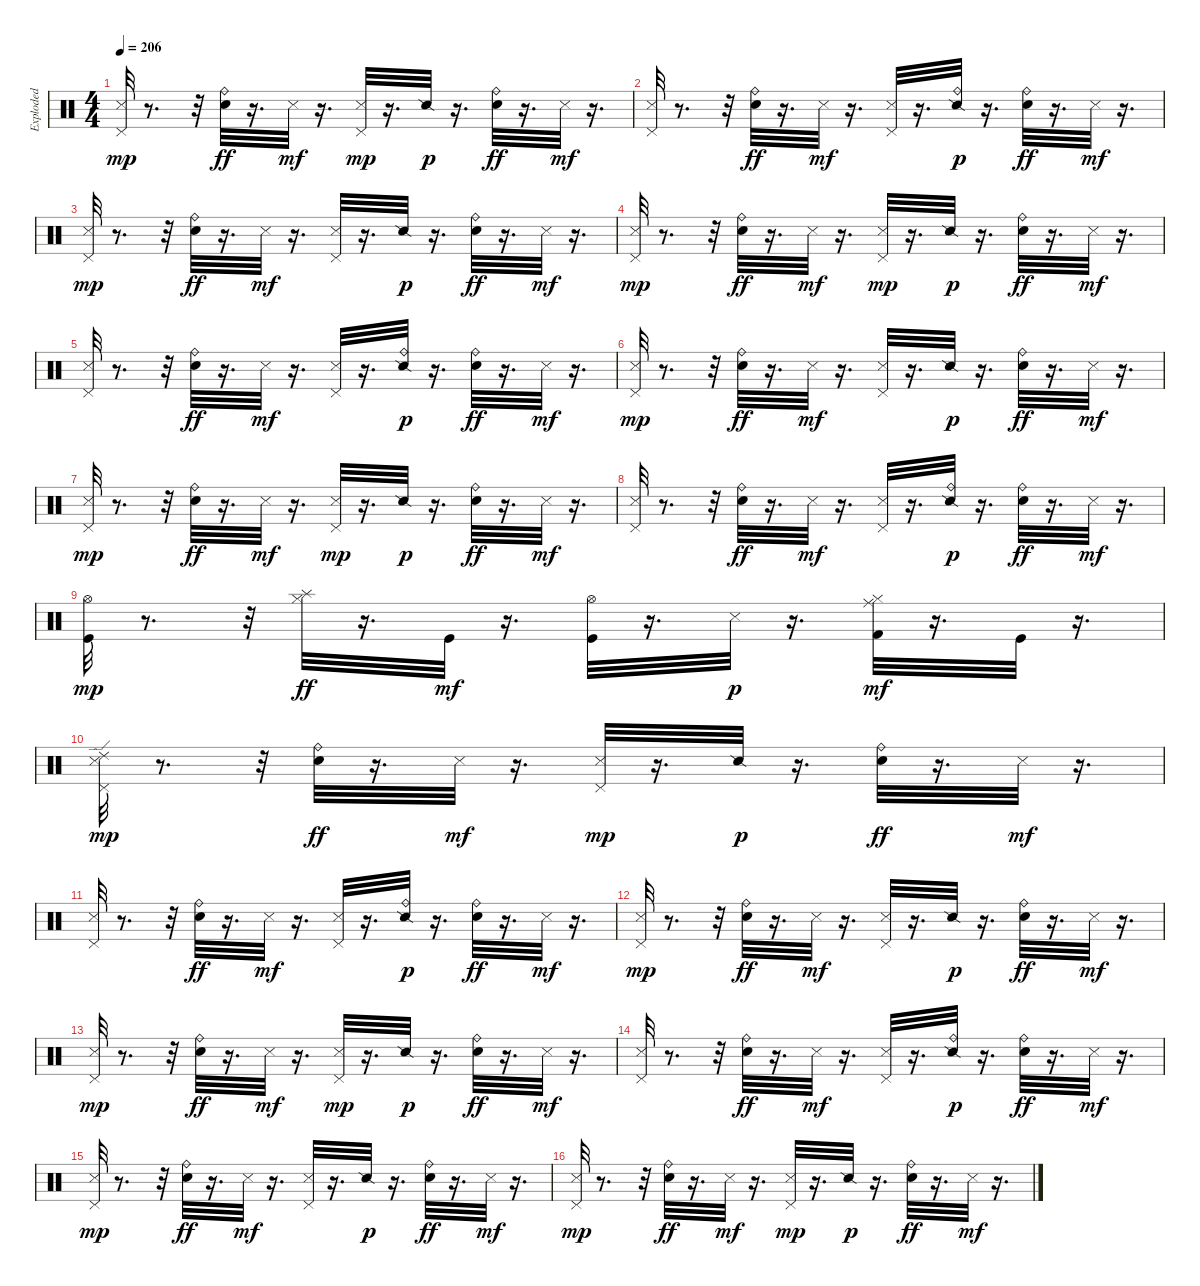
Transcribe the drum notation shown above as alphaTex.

\track ("Exploded" "Exploded") {instrument percussion}
\staff {score}
\articulation defaults
\ts (4 4)
\tempo 206
\clef neutral
\ks c
("Metronome (hit)" "Pedal Hi-Hat (hit)").32{dy mp} r.8{d} r.32 ("Electric Snare (hit)" "Ride (bell)").32{dy ff} r.16{d} "Metronome (hit)".32{dy mf} r.16{d} ("Metronome (hit)" "Pedal Hi-Hat (hit)").32{dy mp} r.16{d} "Snare (side stick) 2".32{dy p} r.16{d} ("Electric Snare (hit)" "Ride (bell)").32{dy ff} r.16{d} "Metronome (hit)".32{dy mf} r.16{d} |
("Metronome (hit)" "Pedal Hi-Hat (hit)").32 r.8{d} r.32 ("Electric Snare (hit)" "Ride (bell)").32{dy ff} r.16{d} "Metronome (hit)".32{dy mf} r.16{d} ("Metronome (hit)" "Pedal Hi-Hat (hit)").32 r.16{d} ("Snare (side stick) 2" "Ride (bell)").32{dy p} r.16{d} ("Electric Snare (hit)" "Ride (bell)").32{dy ff} r.16{d} "Metronome (hit)".32{dy mf} r.16{d} |
("Metronome (hit)" "Pedal Hi-Hat (hit)").32{dy mp} r.8{d} r.32 ("Electric Snare (hit)" "Ride (bell)").32{dy ff} r.16{d} "Metronome (hit)".32{dy mf} r.16{d} ("Metronome (hit)" "Pedal Hi-Hat (hit)").32 r.16{d} "Snare (side stick) 2".32{dy p} r.16{d} ("Electric Snare (hit)" "Ride (bell)").32{dy ff} r.16{d} "Metronome (hit)".32{dy mf} r.16{d} |
("Metronome (hit)" "Pedal Hi-Hat (hit)").32{dy mp} r.8{d} r.32 ("Electric Snare (hit)" "Ride (bell)").32{dy ff} r.16{d} "Metronome (hit)".32{dy mf} r.16{d} ("Metronome (hit)" "Pedal Hi-Hat (hit)").32{dy mp} r.16{d} "Snare (side stick) 2".32{dy p} r.16{d} ("Electric Snare (hit)" "Ride (bell)").32{dy ff} r.16{d} "Metronome (hit)".32{dy mf} r.16{d} |
("Metronome (hit)" "Pedal Hi-Hat (hit)").32 r.8{d} r.32 ("Electric Snare (hit)" "Ride (bell)").32{dy ff} r.16{d} "Metronome (hit)".32{dy mf} r.16{d} ("Metronome (hit)" "Pedal Hi-Hat (hit)").32 r.16{d} ("Snare (side stick) 2" "Ride (bell)").32{dy p} r.16{d} ("Electric Snare (hit)" "Ride (bell)").32{dy ff} r.16{d} "Metronome (hit)".32{dy mf} r.16{d} |
("Metronome (hit)" "Pedal Hi-Hat (hit)").32{dy mp} r.8{d} r.32 ("Electric Snare (hit)" "Ride (bell)").32{dy ff} r.16{d} "Metronome (hit)".32{dy mf} r.16{d} ("Metronome (hit)" "Pedal Hi-Hat (hit)").32 r.16{d} "Snare (side stick) 2".32{dy p} r.16{d} ("Electric Snare (hit)" "Ride (bell)").32{dy ff} r.16{d} "Metronome (hit)".32{dy mf} r.16{d} |
("Metronome (hit)" "Pedal Hi-Hat (hit)").32{dy mp} r.8{d} r.32 ("Electric Snare (hit)" "Ride (bell)").32{dy ff} r.16{d} "Metronome (hit)".32{dy mf} r.16{d} ("Metronome (hit)" "Pedal Hi-Hat (hit)").32{dy mp} r.16{d} "Snare (side stick) 2".32{dy p} r.16{d} ("Electric Snare (hit)" "Ride (bell)").32{dy ff} r.16{d} "Metronome (hit)".32{dy mf} r.16{d} |
("Metronome (hit)" "Pedal Hi-Hat (hit)").32 r.8{d} r.32 ("Electric Snare (hit)" "Ride (bell)").32{dy ff} r.16{d} "Metronome (hit)".32{dy mf} r.16{d} ("Metronome (hit)" "Pedal Hi-Hat (hit)").32 r.16{d} ("Snare (side stick) 2" "Ride (bell)").32{dy p} r.16{d} ("Electric Snare (hit)" "Ride (bell)").32{dy ff} r.16{d} "Metronome (hit)".32{dy mf} r.16{d} |
("Kick (hit)" "Hi-Hat (open)").32{dy mp} r.8{d} r.32 ("Hi-Hat (closed)" "Splash (hit)").32{dy ff} r.16{d} "Kick (hit)".32{dy mf} r.16{d} ("Kick (hit)" "Hi-Hat (open)").32 r.16{d} "Metronome (hit)".32{dy p} r.16{d} ("Kick (hit) 2" "Hi-Hat (closed)" "Ride (middle)").32{dy mf} r.16{d} "Kick (hit)".32 r.16{d} |
("Ride (edge) 2" "Metronome (hit)" "Pedal Hi-Hat (hit)").32{dy mp} r.8{d} r.32 ("Electric Snare (hit)" "Ride (bell)").32{dy ff} r.16{d} "Metronome (hit)".32{dy mf} r.16{d} ("Metronome (hit)" "Pedal Hi-Hat (hit)").32{dy mp} r.16{d} "Snare (side stick) 2".32{dy p} r.16{d} ("Electric Snare (hit)" "Ride (bell)").32{dy ff} r.16{d} "Metronome (hit)".32{dy mf} r.16{d} |
("Metronome (hit)" "Pedal Hi-Hat (hit)").32 r.8{d} r.32 ("Electric Snare (hit)" "Ride (bell)").32{dy ff} r.16{d} "Metronome (hit)".32{dy mf} r.16{d} ("Metronome (hit)" "Pedal Hi-Hat (hit)").32 r.16{d} ("Snare (side stick) 2" "Ride (bell)").32{dy p} r.16{d} ("Electric Snare (hit)" "Ride (bell)").32{dy ff} r.16{d} "Metronome (hit)".32{dy mf} r.16{d} |
("Metronome (hit)" "Pedal Hi-Hat (hit)").32{dy mp} r.8{d} r.32 ("Electric Snare (hit)" "Ride (bell)").32{dy ff} r.16{d} "Metronome (hit)".32{dy mf} r.16{d} ("Metronome (hit)" "Pedal Hi-Hat (hit)").32 r.16{d} "Snare (side stick) 2".32{dy p} r.16{d} ("Electric Snare (hit)" "Ride (bell)").32{dy ff} r.16{d} "Metronome (hit)".32{dy mf} r.16{d} |
("Metronome (hit)" "Pedal Hi-Hat (hit)").32{dy mp} r.8{d} r.32 ("Electric Snare (hit)" "Ride (bell)").32{dy ff} r.16{d} "Metronome (hit)".32{dy mf} r.16{d} ("Metronome (hit)" "Pedal Hi-Hat (hit)").32{dy mp} r.16{d} "Snare (side stick) 2".32{dy p} r.16{d} ("Electric Snare (hit)" "Ride (bell)").32{dy ff} r.16{d} "Metronome (hit)".32{dy mf} r.16{d} |
("Metronome (hit)" "Pedal Hi-Hat (hit)").32 r.8{d} r.32 ("Electric Snare (hit)" "Ride (bell)").32{dy ff} r.16{d} "Metronome (hit)".32{dy mf} r.16{d} ("Metronome (hit)" "Pedal Hi-Hat (hit)").32 r.16{d} ("Snare (side stick) 2" "Ride (bell)").32{dy p} r.16{d} ("Electric Snare (hit)" "Ride (bell)").32{dy ff} r.16{d} "Metronome (hit)".32{dy mf} r.16{d} |
("Metronome (hit)" "Pedal Hi-Hat (hit)").32{dy mp} r.8{d} r.32 ("Electric Snare (hit)" "Ride (bell)").32{dy ff} r.16{d} "Metronome (hit)".32{dy mf} r.16{d} ("Metronome (hit)" "Pedal Hi-Hat (hit)").32 r.16{d} "Snare (side stick) 2".32{dy p} r.16{d} ("Electric Snare (hit)" "Ride (bell)").32{dy ff} r.16{d} "Metronome (hit)".32{dy mf} r.16{d} |
("Metronome (hit)" "Pedal Hi-Hat (hit)").32{dy mp} r.8{d} r.32 ("Electric Snare (hit)" "Ride (bell)").32{dy ff} r.16{d} "Metronome (hit)".32{dy mf} r.16{d} ("Metronome (hit)" "Pedal Hi-Hat (hit)").32{dy mp} r.16{d} "Snare (side stick) 2".32{dy p} r.16{d} ("Electric Snare (hit)" "Ride (bell)").32{dy ff} r.16{d} "Metronome (hit)".32{dy mf} r.16{d}
